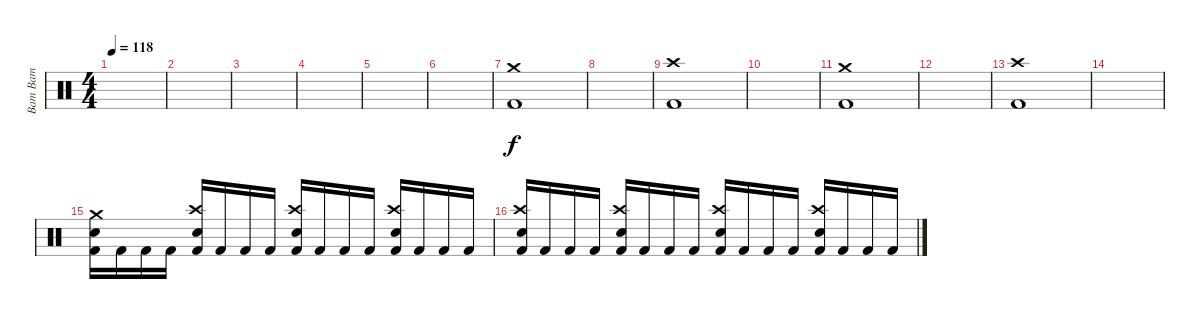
\track ("Bam Bam" "Bam Bam") {instrument percussion}
\staff {score}
\articulation defaults
\ts (4 4)
\tempo 118
\clef neutral
\ks c
|
|
|
|
|
|
("Crash medium (hit)" "Kick (hit) 2").1{dy f} |
|
("Crash high (hit)" "Kick (hit) 2").1 |
|
("Crash medium (hit)" "Kick (hit) 2").1 |
|
("Crash high (hit)" "Kick (hit) 2").1 |
|
("Crash medium (hit)" "Electric Snare (hit)" "Kick (hit) 2").16 "Kick (hit) 2".16 "Kick (hit) 2".16 "Kick (hit) 2".16 ("Crash high (hit)" "Electric Snare (hit)" "Kick (hit) 2").16 "Kick (hit) 2".16 "Kick (hit) 2".16 "Kick (hit) 2".16 ("Crash high (hit)" "Electric Snare (hit)" "Kick (hit) 2").16 "Kick (hit) 2".16 "Kick (hit) 2".16 "Kick (hit) 2".16 ("Crash high (hit)" "Electric Snare (hit)" "Kick (hit) 2").16 "Kick (hit) 2".16 "Kick (hit) 2".16 "Kick (hit) 2".16 |
("Crash high (hit)" "Electric Snare (hit)" "Kick (hit) 2").16 "Kick (hit) 2".16 "Kick (hit) 2".16 "Kick (hit) 2".16 ("Crash high (hit)" "Electric Snare (hit)" "Kick (hit) 2").16 "Kick (hit) 2".16 "Kick (hit) 2".16 "Kick (hit) 2".16 ("Crash high (hit)" "Electric Snare (hit)" "Kick (hit) 2").16 "Kick (hit) 2".16 "Kick (hit) 2".16 "Kick (hit) 2".16 ("Crash high (hit)" "Electric Snare (hit)" "Kick (hit) 2").16 "Kick (hit) 2".16 "Kick (hit) 2".16 "Kick (hit) 2".16
